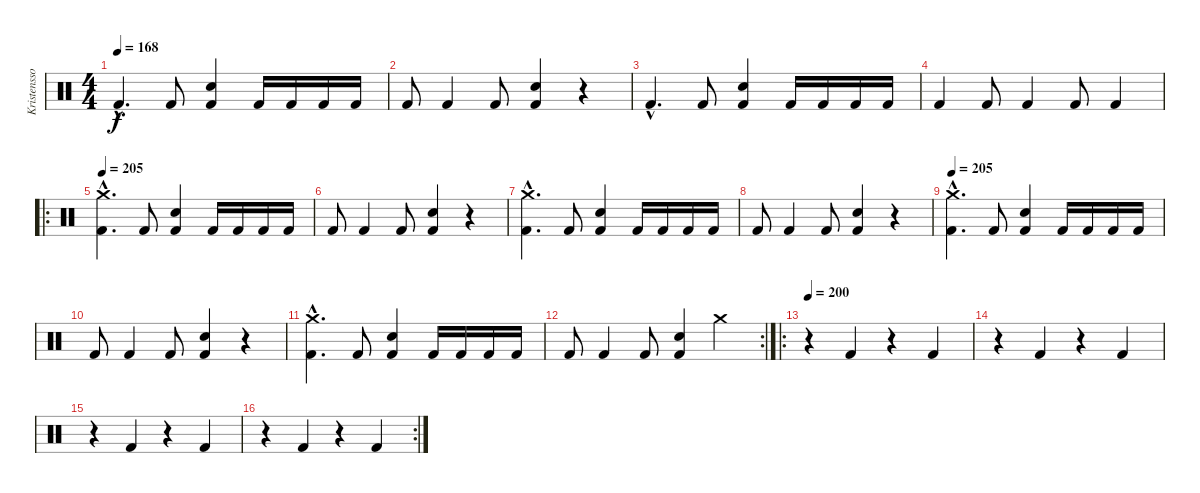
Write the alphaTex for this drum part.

\track ("Kristensson" "Kristensso") {instrument percussion}
\staff {score}
\articulation defaults
\ts (4 4)
\tempo 168
\clef neutral
\ks c "Kick (hit) 2"{hac}.4{d dy f} "Kick (hit) 2".8
("Snare (hit) 2" "Kick (hit) 2").4 "Kick (hit) 2".16 "Kick (hit) 2".16 "Kick (hit) 2".16 "Kick (hit) 2".16 |
"Kick (hit) 2".8 "Kick (hit) 2".4 "Kick (hit) 2".8 ("Snare (hit) 2" "Kick (hit) 2").4 r.4 |
"Kick (hit) 2"{hac}.4{d} "Kick (hit) 2".8 ("Snare (hit) 2" "Kick (hit) 2").4 "Kick (hit) 2".16 "Kick (hit) 2".16 "Kick (hit) 2".16 "Kick (hit) 2".16 |
"Kick (hit) 2".4 "Kick (hit) 2".8 "Kick (hit) 2".4 "Kick (hit) 2".8 "Kick (hit) 2".4 |
\ro
\tempo 205
("Crash medium (hit)"{hac} "Kick (hit) 2"{hac}).4{d} "Kick (hit) 2".8 ("Snare (hit) 2" "Kick (hit) 2").4 "Kick (hit) 2".16 "Kick (hit) 2".16 "Kick (hit) 2".16 "Kick (hit) 2".16 |
"Kick (hit) 2".8 "Kick (hit) 2".4 "Kick (hit) 2".8 ("Snare (hit) 2" "Kick (hit) 2").4 r.4 |
("Crash medium (hit)"{hac} "Kick (hit) 2"{hac}).4{d} "Kick (hit) 2".8 ("Snare (hit) 2" "Kick (hit) 2").4 "Kick (hit) 2".16 "Kick (hit) 2".16 "Kick (hit) 2".16 "Kick (hit) 2".16 |
"Kick (hit) 2".8 "Kick (hit) 2".4 "Kick (hit) 2".8 ("Snare (hit) 2" "Kick (hit) 2").4 r.4 |
\tempo 205
("Crash medium (hit)"{hac} "Kick (hit) 2"{hac}).4{d} "Kick (hit) 2".8 ("Snare (hit) 2" "Kick (hit) 2").4 "Kick (hit) 2".16 "Kick (hit) 2".16 "Kick (hit) 2".16 "Kick (hit) 2".16 |
"Kick (hit) 2".8 "Kick (hit) 2".4 "Kick (hit) 2".8 ("Snare (hit) 2" "Kick (hit) 2").4 r.4 |
("Crash medium (hit)"{hac} "Kick (hit) 2"{hac}).4{d} "Kick (hit) 2".8 ("Snare (hit) 2" "Kick (hit) 2").4 "Kick (hit) 2".16 "Kick (hit) 2".16 "Kick (hit) 2".16 "Kick (hit) 2".16 |
\rc 2 "Kick (hit) 2".8 "Kick (hit) 2".4 "Kick (hit) 2".8
("Snare (hit) 2" "Kick (hit) 2").4 "Crash medium (hit)".4 |
\ro
\tempo 200
r.4 "Kick (hit) 2".4 r.4 "Kick (hit) 2".4 |
r.4 "Kick (hit) 2".4 r.4 "Kick (hit) 2".4 |
r.4 "Kick (hit) 2".4 r.4 "Kick (hit) 2".4 |
\rc 2
r.4 "Kick (hit) 2".4 r.4 "Kick (hit) 2".4
